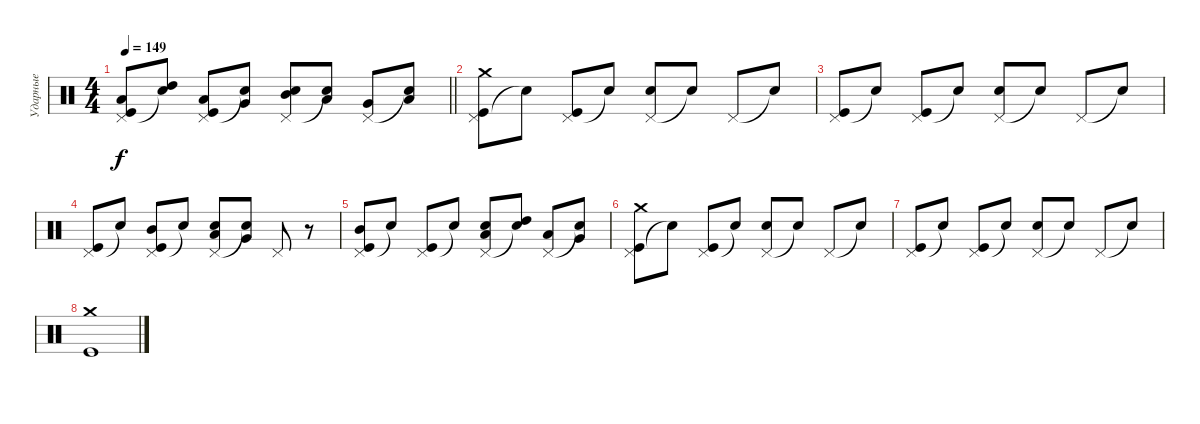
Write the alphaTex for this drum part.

\track ("Ударные" "Ударные") {instrument percussion}
\staff {score}
\articulation defaults
\ts (4 4)
\tempo 149
\clef neutral
\barLineRight lightlight
\ks c
("Pedal Hi-Hat (hit)" "Kick (hit)" "Low Tom (hit)").8{dy f} ("Snare (hit)"{t} "High Tom (hit)").8 ("Pedal Hi-Hat (hit)" "Kick (hit)" "Low Tom (hit)").8 ("Snare (hit)"{t} "Very Low Tom (hit)").8 ("Pedal Hi-Hat (hit)" "Snare (hit) 2" "Mid Tom (hit)").8 ("Snare (hit)"{t} "Low Tom (hit)").8 ("Pedal Hi-Hat (hit)" "Very Low Tom (hit)").8 ("Snare (hit)"{t} "Low Floor Tom (hit)").8 |
("Pedal Hi-Hat (hit)" "Kick (hit)" "Crash medium (hit)").8 "Snare (hit)"{t}.8 ("Pedal Hi-Hat (hit)" "Kick (hit)").8 "Snare (hit)"{t}.8 ("Pedal Hi-Hat (hit)" "Snare (hit) 2").8 "Snare (hit)"{t}.8 "Pedal Hi-Hat (hit)".8 "Snare (hit)"{t}.8 |
("Pedal Hi-Hat (hit)" "Kick (hit)").8 "Snare (hit)"{t}.8 ("Pedal Hi-Hat (hit)" "Kick (hit)").8 "Snare (hit)"{t}.8 ("Pedal Hi-Hat (hit)" "Snare (hit) 2").8 "Snare (hit)"{t}.8 "Pedal Hi-Hat (hit)".8 "Snare (hit)"{t}.8 |
("Pedal Hi-Hat (hit)" "Kick (hit)").8 "Snare (hit)"{t}.8 ("Pedal Hi-Hat (hit)" "Kick (hit)" "Mid Tom (hit)").8 "Snare (hit)"{t}.8 ("Pedal Hi-Hat (hit)" "Snare (hit) 2" "Low Tom (hit)").8 ("Snare (hit)"{t} "Very Low Tom (hit)").8 "Pedal Hi-Hat (hit)".8 r.8 |
("Pedal Hi-Hat (hit)" "Kick (hit)" "Mid Tom (hit)").8 "Snare (hit)"{t}.8 ("Pedal Hi-Hat (hit)" "Kick (hit)").8 "Snare (hit)"{t}.8 ("Pedal Hi-Hat (hit)" "Snare (hit) 2" "Low Tom (hit)").8 ("Snare (hit)"{t} "High Tom (hit)").8 ("Pedal Hi-Hat (hit)" "Low Tom (hit)").8 ("Snare (hit)"{t} "Very Low Tom (hit)").8 |
("Pedal Hi-Hat (hit)" "Kick (hit)" "Crash medium (hit)").8 "Snare (hit)"{t}.8 ("Pedal Hi-Hat (hit)" "Kick (hit)").8 "Snare (hit)"{t}.8 ("Pedal Hi-Hat (hit)" "Snare (hit) 2").8 "Snare (hit)"{t}.8 "Pedal Hi-Hat (hit)".8 "Snare (hit)"{t}.8 |
("Pedal Hi-Hat (hit)" "Kick (hit)").8 "Snare (hit)"{t}.8 ("Pedal Hi-Hat (hit)" "Kick (hit)").8 "Snare (hit)"{t}.8 ("Pedal Hi-Hat (hit)" "Snare (hit) 2").8 "Snare (hit)"{t}.8 "Pedal Hi-Hat (hit)".8 "Snare (hit)"{t}.8 |
("Kick (hit)" "Crash medium (hit)").1
